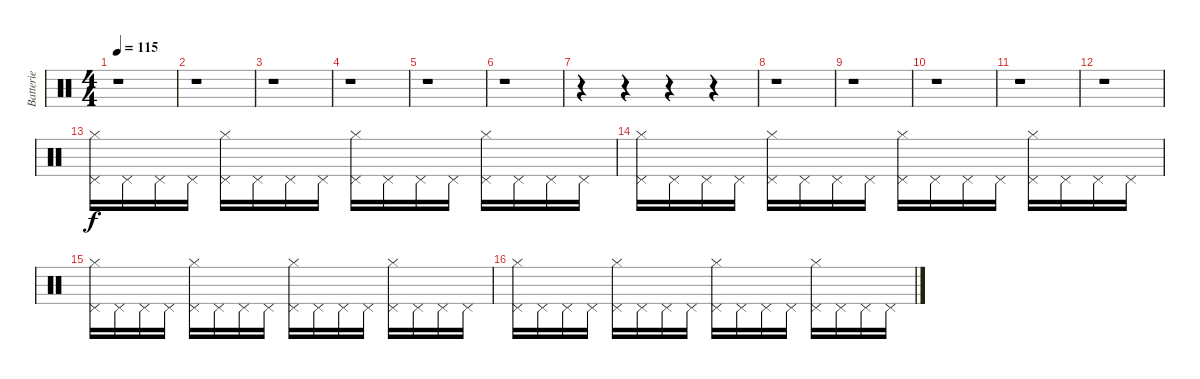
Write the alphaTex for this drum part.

\track ("Batterie" "Batterie") {instrument percussion}
\staff {score}
\articulation defaults
\ts (4 4)
\tempo 115
\clef neutral
\ks c
r.1{dy f} |
r.1 |
r.1 |
r.1 |
r.1 |
r.1 |
r.4 r.4 r.4 r.4 |
r.1 |
r.1 |
r.1 |
r.1 |
r.1 |
("Hi-Hat (closed)" "Pedal Hi-Hat (hit)").16 "Pedal Hi-Hat (hit)".16 "Pedal Hi-Hat (hit)".16 "Pedal Hi-Hat (hit)".16 ("Hi-Hat (closed)" "Pedal Hi-Hat (hit)").16 "Pedal Hi-Hat (hit)".16 "Pedal Hi-Hat (hit)".16 "Pedal Hi-Hat (hit)".16 ("Hi-Hat (closed)" "Pedal Hi-Hat (hit)").16 "Pedal Hi-Hat (hit)".16 "Pedal Hi-Hat (hit)".16 "Pedal Hi-Hat (hit)".16 ("Hi-Hat (closed)" "Pedal Hi-Hat (hit)").16 "Pedal Hi-Hat (hit)".16 "Pedal Hi-Hat (hit)".16 "Pedal Hi-Hat (hit)".16 |
("Hi-Hat (closed)" "Pedal Hi-Hat (hit)").16 "Pedal Hi-Hat (hit)".16 "Pedal Hi-Hat (hit)".16 "Pedal Hi-Hat (hit)".16 ("Hi-Hat (closed)" "Pedal Hi-Hat (hit)").16 "Pedal Hi-Hat (hit)".16 "Pedal Hi-Hat (hit)".16 "Pedal Hi-Hat (hit)".16 ("Hi-Hat (closed)" "Pedal Hi-Hat (hit)").16 "Pedal Hi-Hat (hit)".16 "Pedal Hi-Hat (hit)".16 "Pedal Hi-Hat (hit)".16 ("Hi-Hat (closed)" "Pedal Hi-Hat (hit)").16 "Pedal Hi-Hat (hit)".16 "Pedal Hi-Hat (hit)".16 "Pedal Hi-Hat (hit)".16 |
("Hi-Hat (closed)" "Pedal Hi-Hat (hit)").16 "Pedal Hi-Hat (hit)".16 "Pedal Hi-Hat (hit)".16 "Pedal Hi-Hat (hit)".16 ("Hi-Hat (closed)" "Pedal Hi-Hat (hit)").16 "Pedal Hi-Hat (hit)".16 "Pedal Hi-Hat (hit)".16 "Pedal Hi-Hat (hit)".16 ("Hi-Hat (closed)" "Pedal Hi-Hat (hit)").16 "Pedal Hi-Hat (hit)".16 "Pedal Hi-Hat (hit)".16 "Pedal Hi-Hat (hit)".16 ("Hi-Hat (closed)" "Pedal Hi-Hat (hit)").16 "Pedal Hi-Hat (hit)".16 "Pedal Hi-Hat (hit)".16 "Pedal Hi-Hat (hit)".16 |
("Hi-Hat (closed)" "Pedal Hi-Hat (hit)").16 "Pedal Hi-Hat (hit)".16 "Pedal Hi-Hat (hit)".16 "Pedal Hi-Hat (hit)".16 ("Hi-Hat (closed)" "Pedal Hi-Hat (hit)").16 "Pedal Hi-Hat (hit)".16 "Pedal Hi-Hat (hit)".16 "Pedal Hi-Hat (hit)".16 ("Hi-Hat (closed)" "Pedal Hi-Hat (hit)").16 "Pedal Hi-Hat (hit)".16 "Pedal Hi-Hat (hit)".16 "Pedal Hi-Hat (hit)".16 ("Hi-Hat (closed)" "Pedal Hi-Hat (hit)").16 "Pedal Hi-Hat (hit)".16 "Pedal Hi-Hat (hit)".16 "Pedal Hi-Hat (hit)".16
